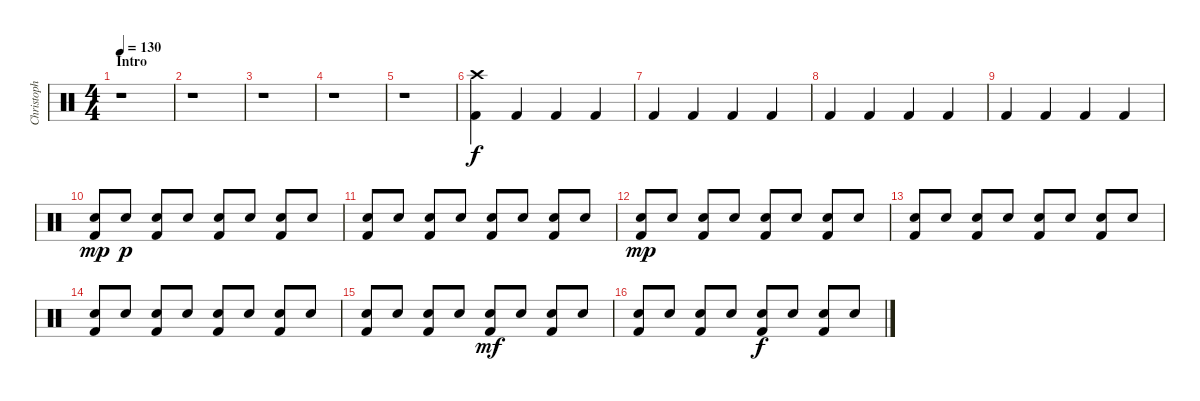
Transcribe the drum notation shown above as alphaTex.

\track ("Christoph" "Christoph") {instrument percussion}
\staff {score}
\articulation defaults
\ts (4 4)
\section ("" "Intro")
\tempo 130
\clef neutral
\ks c
r.1{dy f} |
r.1 |
r.1 |
r.1 |
r.1 |
("Crash high (hit)" "Kick (hit) 2").4 "Kick (hit) 2".4 "Kick (hit) 2".4 "Kick (hit) 2".4 |
"Kick (hit) 2".4 "Kick (hit) 2".4 "Kick (hit) 2".4 "Kick (hit) 2".4 |
"Kick (hit) 2".4 "Kick (hit) 2".4 "Kick (hit) 2".4 "Kick (hit) 2".4 |
"Kick (hit) 2".4 "Kick (hit) 2".4 "Kick (hit) 2".4 "Kick (hit) 2".4 |
("Electric Snare (hit)" "Kick (hit) 2").8{dy mp} "Electric Snare (hit)".8{dy p} ("Electric Snare (hit)" "Kick (hit) 2").8 "Electric Snare (hit)".8 ("Electric Snare (hit)" "Kick (hit) 2").8 "Electric Snare (hit)".8 ("Electric Snare (hit)" "Kick (hit) 2").8 "Electric Snare (hit)".8 |
("Electric Snare (hit)" "Kick (hit) 2").8 "Electric Snare (hit)".8 ("Electric Snare (hit)" "Kick (hit) 2").8 "Electric Snare (hit)".8 ("Electric Snare (hit)" "Kick (hit) 2").8 "Electric Snare (hit)".8 ("Electric Snare (hit)" "Kick (hit) 2").8 "Electric Snare (hit)".8 |
("Electric Snare (hit)" "Kick (hit) 2").8{dy mp} "Electric Snare (hit)".8 ("Electric Snare (hit)" "Kick (hit) 2").8 "Electric Snare (hit)".8 ("Electric Snare (hit)" "Kick (hit) 2").8 "Electric Snare (hit)".8 ("Electric Snare (hit)" "Kick (hit) 2").8 "Electric Snare (hit)".8 |
("Electric Snare (hit)" "Kick (hit) 2").8 "Electric Snare (hit)".8 ("Electric Snare (hit)" "Kick (hit) 2").8 "Electric Snare (hit)".8 ("Electric Snare (hit)" "Kick (hit) 2").8 "Electric Snare (hit)".8 ("Electric Snare (hit)" "Kick (hit) 2").8 "Electric Snare (hit)".8 |
("Electric Snare (hit)" "Kick (hit) 2").8 "Electric Snare (hit)".8 ("Electric Snare (hit)" "Kick (hit) 2").8 "Electric Snare (hit)".8 ("Electric Snare (hit)" "Kick (hit) 2").8 "Electric Snare (hit)".8 ("Electric Snare (hit)" "Kick (hit) 2").8 "Electric Snare (hit)".8 |
("Electric Snare (hit)" "Kick (hit) 2").8 "Electric Snare (hit)".8 ("Electric Snare (hit)" "Kick (hit) 2").8 "Electric Snare (hit)".8 ("Electric Snare (hit)" "Kick (hit) 2").8{dy mf} "Electric Snare (hit)".8 ("Electric Snare (hit)" "Kick (hit) 2").8 "Electric Snare (hit)".8 |
("Electric Snare (hit)" "Kick (hit) 2").8 "Electric Snare (hit)".8 ("Electric Snare (hit)" "Kick (hit) 2").8 "Electric Snare (hit)".8 ("Electric Snare (hit)" "Kick (hit) 2").8{dy f} "Electric Snare (hit)".8 ("Electric Snare (hit)" "Kick (hit) 2").8 "Electric Snare (hit)".8
